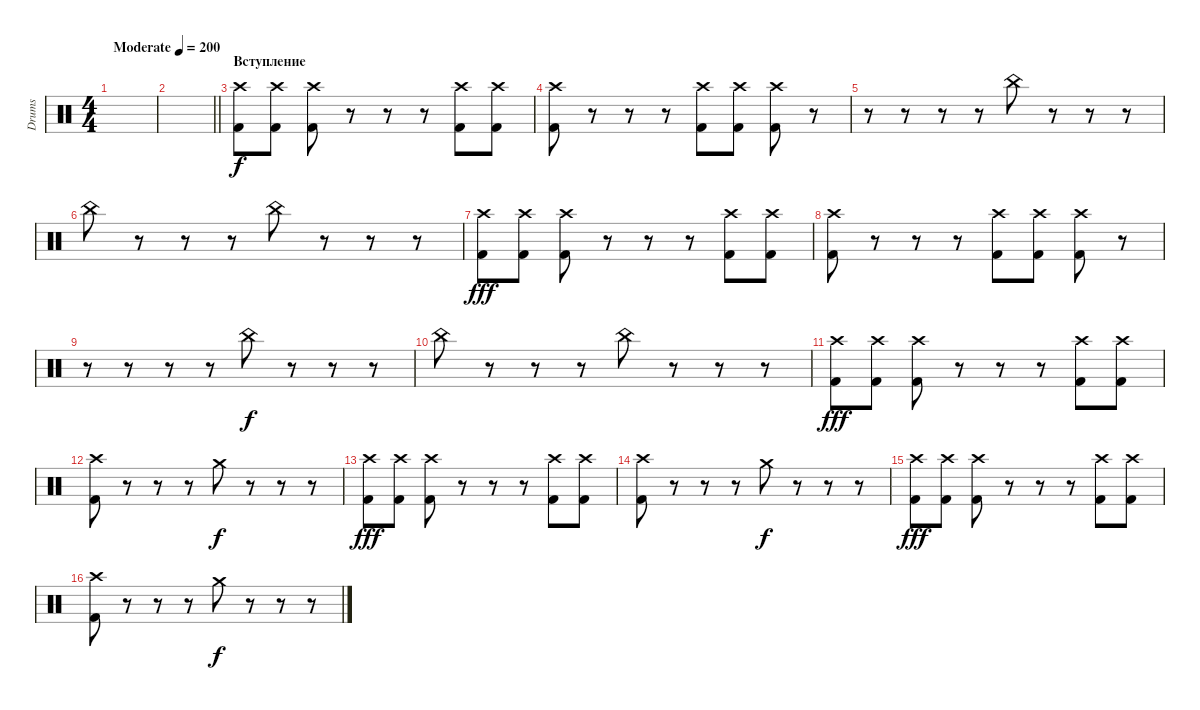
\track ("Drums" "Drums") {instrument percussion}
\staff {score}
\articulation defaults
\ts (4 4)
\tempo (200 "Moderate")
\clef neutral
\ks c
|
\barLineRight lightlight
|
\section ("" "Вступление")
("Crash high (hit)" "Kick (hit) 2").8 ("Crash high (hit)" "Kick (hit) 2").8 ("Crash high (hit)" "Kick (hit) 2").8 r.8 r.8 r.8 ("Crash high (hit)" "Kick (hit) 2").8 ("Crash high (hit)" "Kick (hit) 2").8 |
("Crash high (hit)" "Kick (hit) 2").8 r.8 r.8 r.8 ("Crash high (hit)" "Kick (hit) 2").8 ("Crash high (hit)" "Kick (hit) 2").8 ("Crash high (hit)" "Kick (hit) 2").8{dy f} r.8 |
r.8 r.8 r.8 r.8 "China (hit)".8 r.8 r.8 r.8 |
"China (hit)".8 r.8 r.8 r.8 "China (hit)".8 r.8 r.8 r.8 |
("Crash high (hit)" "Kick (hit) 2").8{dy fff} ("Crash high (hit)" "Kick (hit) 2").8 ("Crash high (hit)" "Kick (hit) 2").8 r.8 r.8 r.8 ("Crash high (hit)" "Kick (hit) 2").8 ("Crash high (hit)" "Kick (hit) 2").8 |
("Crash high (hit)" "Kick (hit) 2").8 r.8 r.8 r.8 ("Crash high (hit)" "Kick (hit) 2").8 ("Crash high (hit)" "Kick (hit) 2").8 ("Crash high (hit)" "Kick (hit) 2").8 r.8 |
r.8 r.8 r.8 r.8 "China (hit)".8{dy f} r.8 r.8 r.8 |
"China (hit)".8 r.8 r.8 r.8 "China (hit)".8 r.8 r.8 r.8 |
("Crash high (hit)" "Kick (hit) 2").8{dy fff} ("Crash high (hit)" "Kick (hit) 2").8 ("Crash high (hit)" "Kick (hit) 2").8 r.8 r.8 r.8 ("Crash high (hit)" "Kick (hit) 2").8 ("Crash high (hit)" "Kick (hit) 2").8 |
("Crash high (hit)" "Kick (hit) 2").8 r.8 r.8 r.8 "Crash medium (hit)".8{dy f} r.8 r.8 r.8 |
("Crash high (hit)" "Kick (hit) 2").8{dy fff} ("Crash high (hit)" "Kick (hit) 2").8 ("Crash high (hit)" "Kick (hit) 2").8 r.8 r.8 r.8 ("Crash high (hit)" "Kick (hit) 2").8 ("Crash high (hit)" "Kick (hit) 2").8 |
("Crash high (hit)" "Kick (hit) 2").8 r.8 r.8 r.8 "Crash medium (hit)".8{dy f} r.8 r.8 r.8 |
("Crash high (hit)" "Kick (hit) 2").8{dy fff} ("Crash high (hit)" "Kick (hit) 2").8 ("Crash high (hit)" "Kick (hit) 2").8 r.8 r.8 r.8 ("Crash high (hit)" "Kick (hit) 2").8 ("Crash high (hit)" "Kick (hit) 2").8 |
("Crash high (hit)" "Kick (hit) 2").8 r.8 r.8 r.8 "Crash medium (hit)".8{dy f} r.8 r.8 r.8
